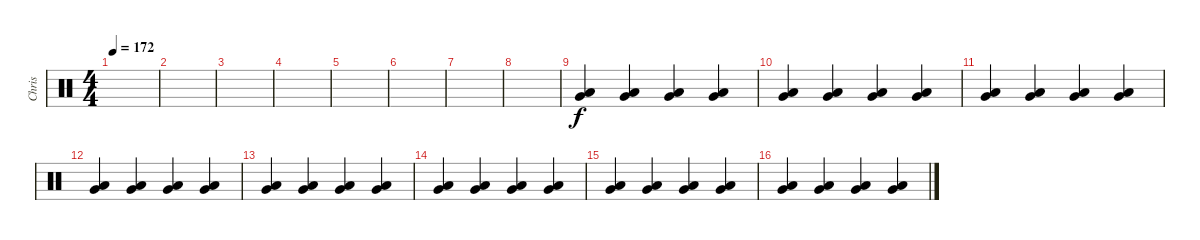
\track ("Chris" "Chris") {instrument percussion}
\staff {score}
\articulation defaults
\ts (4 4)
\tempo 172
\clef neutral
\ks c
|
|
|
|
|
|
|
|
("Low Floor Tom (hit)" "Very Low Tom (hit)").4 ("Low Floor Tom (hit)" "Very Low Tom (hit)").4 ("Low Floor Tom (hit)" "Very Low Tom (hit)").4 ("Low Floor Tom (hit)" "Very Low Tom (hit)").4 |
("Low Floor Tom (hit)" "Very Low Tom (hit)").4 ("Low Floor Tom (hit)" "Very Low Tom (hit)").4 ("Low Floor Tom (hit)" "Very Low Tom (hit)").4 ("Low Floor Tom (hit)" "Very Low Tom (hit)").4 |
("Low Floor Tom (hit)" "Very Low Tom (hit)").4 ("Low Floor Tom (hit)" "Very Low Tom (hit)").4 ("Low Floor Tom (hit)" "Very Low Tom (hit)").4 ("Low Floor Tom (hit)" "Very Low Tom (hit)").4 |
("Low Floor Tom (hit)" "Very Low Tom (hit)").4 ("Low Floor Tom (hit)" "Very Low Tom (hit)").4 ("Low Floor Tom (hit)" "Very Low Tom (hit)").4 ("Low Floor Tom (hit)" "Very Low Tom (hit)").4 |
("Low Floor Tom (hit)" "Very Low Tom (hit)").4 ("Low Floor Tom (hit)" "Very Low Tom (hit)").4 ("Low Floor Tom (hit)" "Very Low Tom (hit)").4 ("Low Floor Tom (hit)" "Very Low Tom (hit)").4 |
("Low Floor Tom (hit)" "Very Low Tom (hit)").4 ("Low Floor Tom (hit)" "Very Low Tom (hit)").4 ("Low Floor Tom (hit)" "Very Low Tom (hit)").4 ("Low Floor Tom (hit)" "Very Low Tom (hit)").4 |
("Low Floor Tom (hit)" "Very Low Tom (hit)").4 ("Low Floor Tom (hit)" "Very Low Tom (hit)").4 ("Low Floor Tom (hit)" "Very Low Tom (hit)").4 ("Low Floor Tom (hit)" "Very Low Tom (hit)").4 |
("Low Floor Tom (hit)" "Very Low Tom (hit)").4 ("Low Floor Tom (hit)" "Very Low Tom (hit)").4 ("Low Floor Tom (hit)" "Very Low Tom (hit)").4 ("Low Floor Tom (hit)" "Very Low Tom (hit)").4
